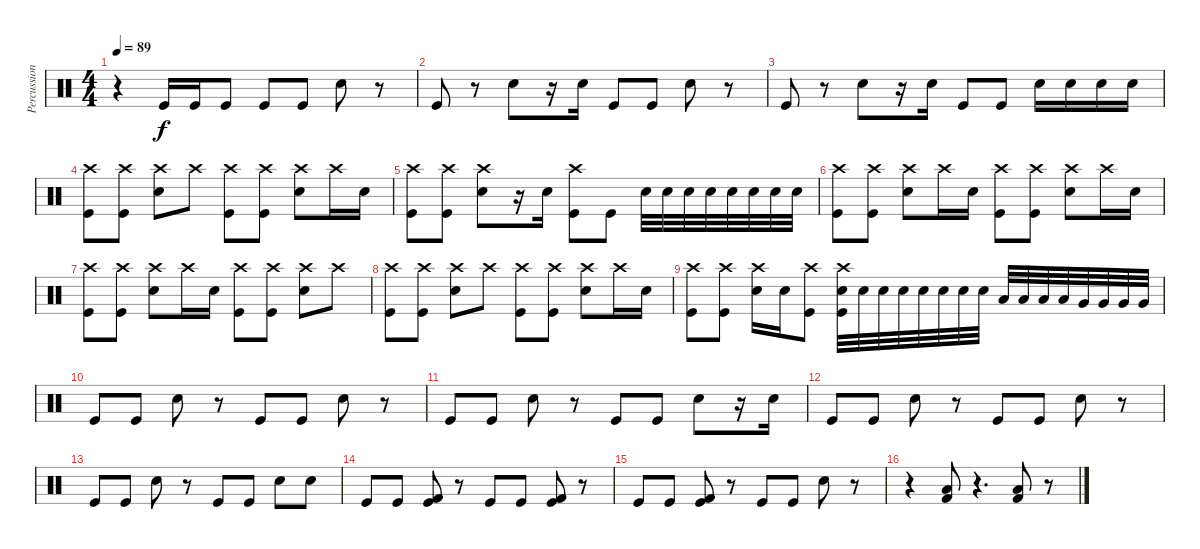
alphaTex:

\track ("Percussion" "Percussion") {instrument percussion}
\staff {score}
\articulation defaults
\ts (4 4)
\tempo 89
\clef neutral
\ks c
r.4{dy f} "Kick (hit)".16 "Kick (hit)".16 "Kick (hit)".8 "Kick (hit)".8 "Kick (hit)".8 "Electric Snare (hit)".8 r.8 |
"Kick (hit)".8 r.8 "Electric Snare (hit)".8 r.16 "Electric Snare (hit)".16 "Kick (hit)".8 "Kick (hit)".8 "Electric Snare (hit)".8 r.8 |
"Kick (hit)".8 r.8 "Electric Snare (hit)".8 r.16 "Electric Snare (hit)".16 "Kick (hit)".8 "Kick (hit)".8 "Electric Snare (hit)".16 "Electric Snare (hit)".16 "Electric Snare (hit)".16 "Electric Snare (hit)".16 |
("Crash high (hit)" "Kick (hit)").8 ("Crash high (hit)" "Kick (hit)").8 ("Crash high (hit)" "Electric Snare (hit)").8 "Crash high (hit)".8 ("Crash high (hit)" "Kick (hit)").8 ("Crash high (hit)" "Kick (hit)").8 ("Crash high (hit)" "Electric Snare (hit)").8 "Crash high (hit)".16 "Electric Snare (hit)".16 |
("Crash high (hit)" "Kick (hit)").8 ("Crash high (hit)" "Kick (hit)").8 ("Crash high (hit)" "Electric Snare (hit)").8 r.16 "Electric Snare (hit)".16 ("Crash high (hit)" "Kick (hit)").8 "Kick (hit)".8 "Electric Snare (hit)".32 "Electric Snare (hit)".32 "Electric Snare (hit)".32 "Electric Snare (hit)".32 "Electric Snare (hit)".32 "Electric Snare (hit)".32 "Electric Snare (hit)".32 "Electric Snare (hit)".32 |
("Crash high (hit)" "Kick (hit)").8 ("Crash high (hit)" "Kick (hit)").8 ("Crash high (hit)" "Electric Snare (hit)").8 "Crash high (hit)".16 "Electric Snare (hit)".16 ("Crash high (hit)" "Kick (hit)").8 ("Crash high (hit)" "Kick (hit)").8 ("Crash high (hit)" "Electric Snare (hit)").8 "Crash high (hit)".16 "Electric Snare (hit)".16 |
("Crash high (hit)" "Kick (hit)").8 ("Crash high (hit)" "Kick (hit)").8 ("Crash high (hit)" "Electric Snare (hit)").8 "Crash high (hit)".16 "Electric Snare (hit)".16 ("Crash high (hit)" "Kick (hit)").8 ("Crash high (hit)" "Kick (hit)").8 ("Crash high (hit)" "Electric Snare (hit)").8 "Crash high (hit)".8 |
("Crash high (hit)" "Kick (hit)").8 ("Crash high (hit)" "Kick (hit)").8 ("Crash high (hit)" "Electric Snare (hit)").8 "Crash high (hit)".8 ("Crash high (hit)" "Kick (hit)").8 ("Crash high (hit)" "Kick (hit)").8 ("Crash high (hit)" "Electric Snare (hit)").8 "Crash high (hit)".16 "Electric Snare (hit)".16 |
("Crash high (hit)" "Kick (hit)").8 ("Crash high (hit)" "Kick (hit)").8 ("Crash high (hit)" "Electric Snare (hit)").16 "Electric Snare (hit)".16 ("Crash high (hit)" "Kick (hit)").8 ("Crash high (hit)" "Electric Snare (hit)" "Kick (hit)").32 "Electric Snare (hit)".32 "Electric Snare (hit)".32 "Electric Snare (hit)".32 "Electric Snare (hit)".32 "Electric Snare (hit)".32 "Electric Snare (hit)".32 "Electric Snare (hit)".32 "Low Tom (hit)".32 "Low Tom (hit)".32 "Low Tom (hit)".32 "Low Tom (hit)".32 "Very Low Tom (hit)".32 "Very Low Tom (hit)".32 "Very Low Tom (hit)".32 "Very Low Tom (hit)".32 |
"Kick (hit)".8 "Kick (hit)".8 "Electric Snare (hit)".8 r.8 "Kick (hit)".8 "Kick (hit)".8 "Electric Snare (hit)".8 r.8 |
"Kick (hit)".8 "Kick (hit)".8 "Electric Snare (hit)".8 r.8 "Kick (hit)".8 "Kick (hit)".8 "Electric Snare (hit)".8 r.16 "Electric Snare (hit)".16 |
"Kick (hit)".8 "Kick (hit)".8 "Electric Snare (hit)".8 r.8 "Kick (hit)".8 "Kick (hit)".8 "Electric Snare (hit)".8 r.8 |
"Kick (hit)".8 "Kick (hit)".8 "Electric Snare (hit)".8 r.8 "Kick (hit)".8 "Kick (hit)".8 "Electric Snare (hit)".8 "Electric Snare (hit)".8 |
"Kick (hit)".8 "Kick (hit)".8 ("Kick (hit) 2" "Kick (hit)").8 r.8 "Kick (hit)".8 "Kick (hit)".8 ("Kick (hit) 2" "Kick (hit)").8 r.8 |
"Kick (hit)".8 "Kick (hit)".8 ("Kick (hit) 2" "Kick (hit)").8 r.8 "Kick (hit)".8 "Kick (hit)".8 "Electric Snare (hit)".8 r.8 |
r.4 ("Low Floor Tom (hit)" "Kick (hit) 2").8 r.4{d} ("Low Floor Tom (hit)" "Kick (hit) 2").8 r.8
